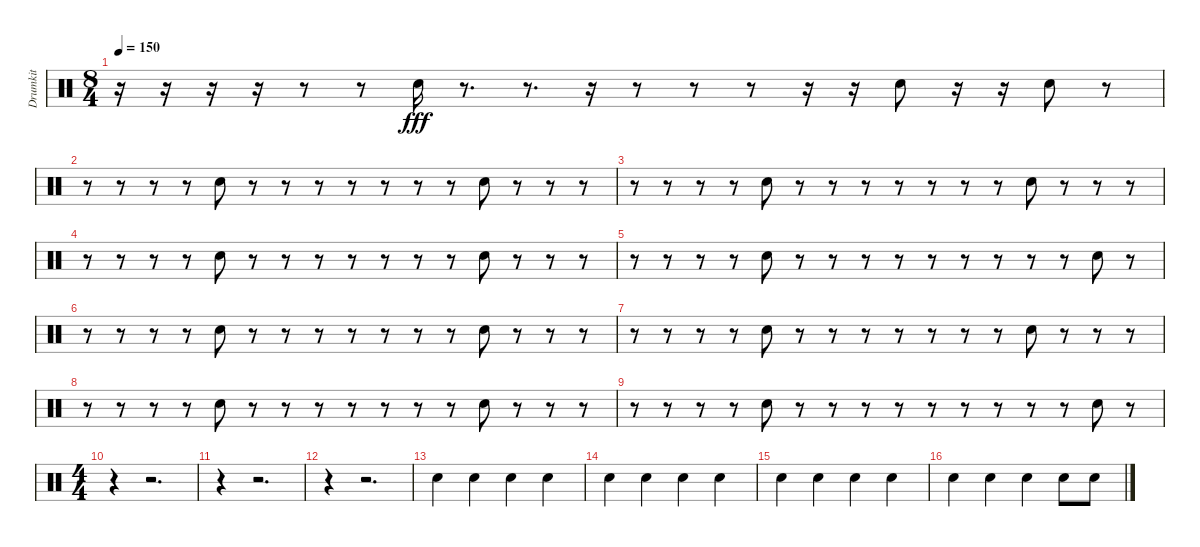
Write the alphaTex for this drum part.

\track ("Drumkit" "Drumkit") {instrument percussion}
\staff {score}
\articulation defaults
\ts (8 4)
\tempo 150
\clef neutral
\ks c
r.16{dy fff} r.16 r.16 r.16 r.8 r.8 "Snare (hit) 2".16 r.8{d} r.8{d} r.16 r.8 r.8 r.8 r.16 r.16 "Snare (hit) 2".8 r.16 r.16 "Snare (hit) 2".8 r.8 |
r.8 r.8 r.8 r.8 "Snare (hit) 2".8 r.8 r.8 r.8 r.8 r.8 r.8 r.8 "Snare (hit) 2".8 r.8 r.8 r.8 |
r.8 r.8 r.8 r.8 "Snare (hit) 2".8 r.8 r.8 r.8 r.8 r.8 r.8 r.8 "Snare (hit) 2".8 r.8 r.8 r.8 |
r.8 r.8 r.8 r.8 "Snare (hit) 2".8 r.8 r.8 r.8 r.8 r.8 r.8 r.8 "Snare (hit) 2".8 r.8 r.8 r.8 |
r.8 r.8 r.8 r.8 "Snare (hit) 2".8 r.8 r.8 r.8 r.8 r.8 r.8 r.8 r.8 r.8 "Snare (hit) 2".8 r.8 |
r.8 r.8 r.8 r.8 "Snare (hit) 2".8 r.8 r.8 r.8 r.8 r.8 r.8 r.8 "Snare (hit) 2".8 r.8 r.8 r.8 |
r.8 r.8 r.8 r.8 "Snare (hit) 2".8 r.8 r.8 r.8 r.8 r.8 r.8 r.8 "Snare (hit) 2".8 r.8 r.8 r.8 |
r.8 r.8 r.8 r.8 "Snare (hit) 2".8 r.8 r.8 r.8 r.8 r.8 r.8 r.8 "Snare (hit) 2".8 r.8 r.8 r.8 |
r.8 r.8 r.8 r.8 "Snare (hit) 2".8 r.8 r.8 r.8 r.8 r.8 r.8 r.8 r.8 r.8 "Snare (hit) 2".8 r.8 |
\ts (4 4)
r.4 r.2{d} |
r.4 r.2{d} |
r.4 r.2{d} |
"Snare (hit) 2".4 "Snare (hit) 2".4 "Snare (hit) 2".4 "Snare (hit) 2".4 |
"Snare (hit) 2".4 "Snare (hit) 2".4 "Snare (hit) 2".4 "Snare (hit) 2".4 |
"Snare (hit) 2".4 "Snare (hit) 2".4 "Snare (hit) 2".4 "Snare (hit) 2".4 |
"Snare (hit) 2".4 "Snare (hit) 2".4 "Snare (hit) 2".4 "Snare (hit) 2".8 "Snare (hit) 2".8
